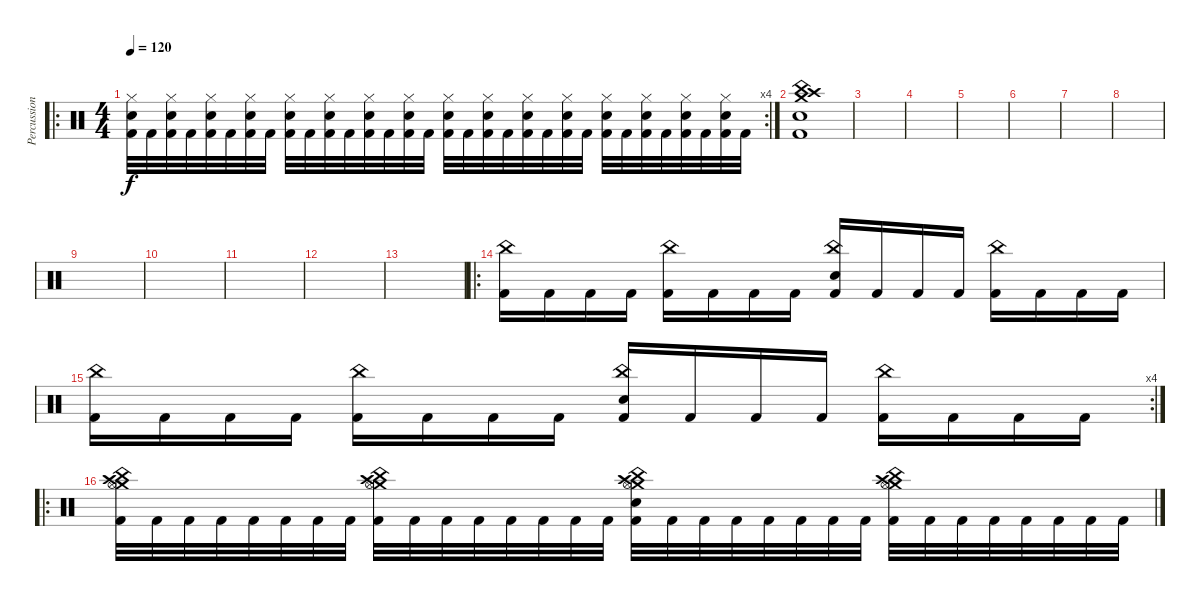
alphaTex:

\track ("Percussions" "Percussion") {instrument percussion}
\staff {score}
\articulation defaults
\ro
\rc 4
\ts (4 4)
\tempo 120
\clef neutral
\ks c
("Hi-Hat (closed)" "Snare (hit) 2" "Kick (hit) 2").32{dy f} "Kick (hit) 2".32 ("Hi-Hat (closed)" "Snare (hit) 2" "Kick (hit) 2").32 "Kick (hit) 2".32 ("Hi-Hat (closed)" "Snare (hit) 2" "Kick (hit) 2").32 "Kick (hit) 2".32 ("Hi-Hat (closed)" "Snare (hit) 2" "Kick (hit) 2").32 "Kick (hit) 2".32 ("Hi-Hat (closed)" "Snare (hit) 2" "Kick (hit) 2").32 "Kick (hit) 2".32 ("Hi-Hat (closed)" "Snare (hit) 2" "Kick (hit) 2").32 "Kick (hit) 2".32 ("Hi-Hat (closed)" "Snare (hit) 2" "Kick (hit) 2").32 "Kick (hit) 2".32 ("Hi-Hat (closed)" "Snare (hit) 2" "Kick (hit) 2").32 "Kick (hit) 2".32 ("Hi-Hat (closed)" "Snare (hit) 2" "Kick (hit) 2").32 "Kick (hit) 2".32 ("Hi-Hat (closed)" "Snare (hit) 2" "Kick (hit) 2").32 "Kick (hit) 2".32 ("Hi-Hat (closed)" "Snare (hit) 2" "Kick (hit) 2").32 "Kick (hit) 2".32 ("Hi-Hat (closed)" "Snare (hit) 2" "Kick (hit) 2").32 "Kick (hit) 2".32 ("Hi-Hat (closed)" "Snare (hit) 2" "Kick (hit) 2").32 "Kick (hit) 2".32 ("Hi-Hat (closed)" "Snare (hit) 2" "Kick (hit) 2").32 "Kick (hit) 2".32 ("Hi-Hat (closed)" "Snare (hit) 2" "Kick (hit) 2").32 "Kick (hit) 2".32 ("Hi-Hat (closed)" "Snare (hit) 2" "Kick (hit) 2").32 "Kick (hit) 2".32 |
("China (hit)" "Crash medium (hit)" "Crash high (hit)" "Electric Snare (hit)" "Kick (hit) 2").1 |
|
|
|
|
|
|
|
|
|
|
|
\ro
("China (hit)" "Kick (hit) 2").16 "Kick (hit) 2".16 "Kick (hit) 2".16 "Kick (hit) 2".16 ("China (hit)" "Kick (hit) 2").16 "Kick (hit) 2".16 "Kick (hit) 2".16 "Kick (hit) 2".16 ("China (hit)" "Electric Snare (hit)" "Kick (hit) 2").16 "Kick (hit) 2".16 "Kick (hit) 2".16 "Kick (hit) 2".16 ("China (hit)" "Kick (hit) 2").16 "Kick (hit) 2".16 "Kick (hit) 2".16 "Kick (hit) 2".16 |
\rc 4
("China (hit)" "Kick (hit) 2").16 "Kick (hit) 2".16 "Kick (hit) 2".16 "Kick (hit) 2".16 ("China (hit)" "Kick (hit) 2").16 "Kick (hit) 2".16 "Kick (hit) 2".16 "Kick (hit) 2".16 ("China (hit)" "Electric Snare (hit)" "Kick (hit) 2").16 "Kick (hit) 2".16 "Kick (hit) 2".16 "Kick (hit) 2".16 ("China (hit)" "Kick (hit) 2").16 "Kick (hit) 2".16 "Kick (hit) 2".16 "Kick (hit) 2".16 |
\ro
("China (hit)" "Crash medium (hit)" "Crash high (hit)" "Hi-Hat (open)" "Kick (hit) 2").32 "Kick (hit) 2".32 "Kick (hit) 2".32 "Kick (hit) 2".32 "Kick (hit) 2".32 "Kick (hit) 2".32 "Kick (hit) 2".32 "Kick (hit) 2".32 ("China (hit)" "Crash medium (hit)" "Crash high (hit)" "Hi-Hat (open)" "Kick (hit) 2").32 "Kick (hit) 2".32 "Kick (hit) 2".32 "Kick (hit) 2".32 "Kick (hit) 2".32 "Kick (hit) 2".32 "Kick (hit) 2".32 "Kick (hit) 2".32 ("China (hit)" "Crash medium (hit)" "Crash high (hit)" "Hi-Hat (open)" "Electric Snare (hit)" "Kick (hit) 2").32 "Kick (hit) 2".32 "Kick (hit) 2".32 "Kick (hit) 2".32 "Kick (hit) 2".32 "Kick (hit) 2".32 "Kick (hit) 2".32 "Kick (hit) 2".32 ("China (hit)" "Crash medium (hit)" "Crash high (hit)" "Hi-Hat (open)" "Kick (hit) 2").32 "Kick (hit) 2".32 "Kick (hit) 2".32 "Kick (hit) 2".32 "Kick (hit) 2".32 "Kick (hit) 2".32 "Kick (hit) 2".32 "Kick (hit) 2".32
